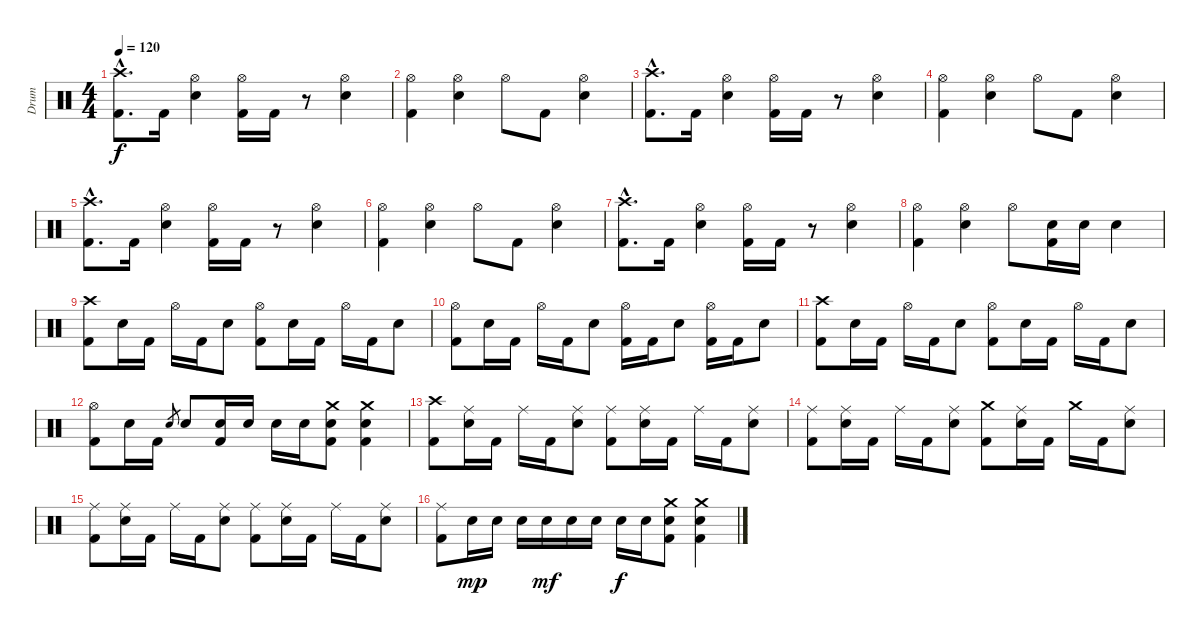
\track ("Drum" "Drum") {instrument percussion}
\staff {score}
\articulation defaults
\ts (4 4)
\tempo 120
\clef neutral
\ks c
("Crash high (hit)"{hac} "Kick (hit) 2"{hac}).8{d dy f} "Kick (hit) 2".16 ("Hi-Hat (open)" "Electric Snare (hit)").4 ("Hi-Hat (open)" "Kick (hit) 2").16 "Kick (hit) 2".16 r.8 ("Hi-Hat (open)" "Electric Snare (hit)").4 |
("Hi-Hat (open)" "Kick (hit) 2").4 ("Hi-Hat (open)" "Electric Snare (hit)").4 "Hi-Hat (open)".8 "Kick (hit) 2".8 ("Hi-Hat (open)" "Electric Snare (hit)").4 |
("Crash high (hit)"{hac} "Kick (hit) 2"{hac}).8{d} "Kick (hit) 2".16 ("Hi-Hat (open)" "Electric Snare (hit)").4 ("Hi-Hat (open)" "Kick (hit) 2").16 "Kick (hit) 2".16 r.8 ("Hi-Hat (open)" "Electric Snare (hit)").4 |
("Hi-Hat (open)" "Kick (hit) 2").4 ("Hi-Hat (open)" "Electric Snare (hit)").4 "Hi-Hat (open)".8 "Kick (hit) 2".8 ("Hi-Hat (open)" "Electric Snare (hit)").4 |
("Crash high (hit)"{hac} "Kick (hit) 2"{hac}).8{d} "Kick (hit) 2".16 ("Hi-Hat (open)" "Electric Snare (hit)").4 ("Hi-Hat (open)" "Kick (hit) 2").16 "Kick (hit) 2".16 r.8 ("Hi-Hat (open)" "Electric Snare (hit)").4 |
("Hi-Hat (open)" "Kick (hit) 2").4 ("Hi-Hat (open)" "Electric Snare (hit)").4 "Hi-Hat (open)".8 "Kick (hit) 2".8 ("Hi-Hat (open)" "Electric Snare (hit)").4 |
("Crash high (hit)"{hac} "Kick (hit) 2"{hac}).8{d} "Kick (hit) 2".16 ("Hi-Hat (open)" "Electric Snare (hit)").4 ("Hi-Hat (open)" "Kick (hit) 2").16 "Kick (hit) 2".16 r.8 ("Hi-Hat (open)" "Electric Snare (hit)").4 |
("Hi-Hat (open)" "Kick (hit) 2").4 ("Hi-Hat (open)" "Electric Snare (hit)").4 "Hi-Hat (open)".8 ("Electric Snare (hit)" "Kick (hit) 2").16 "Electric Snare (hit)".16 "Electric Snare (hit)".4 |
("Crash high (hit)" "Kick (hit) 2").8 "Electric Snare (hit)".16 "Kick (hit) 2".16 "Hi-Hat (open)".16 "Kick (hit) 2".16 "Electric Snare (hit)".8 ("Hi-Hat (open)" "Kick (hit) 2").8 "Electric Snare (hit)".16 "Kick (hit) 2".16 "Hi-Hat (open)".16 "Kick (hit) 2".16 "Electric Snare (hit)".8 |
("Hi-Hat (open)" "Kick (hit) 2").8 "Electric Snare (hit)".16 "Kick (hit) 2".16 "Hi-Hat (open)".16 "Kick (hit) 2".16 "Electric Snare (hit)".8 ("Hi-Hat (open)" "Kick (hit) 2").16 "Kick (hit) 2".16 "Electric Snare (hit)".8 ("Hi-Hat (open)" "Kick (hit) 2").16 "Kick (hit) 2".16 "Electric Snare (hit)".8 |
("Crash high (hit)" "Kick (hit) 2").8 "Electric Snare (hit)".16 "Kick (hit) 2".16 "Hi-Hat (open)".16 "Kick (hit) 2".16 "Electric Snare (hit)".8 ("Hi-Hat (open)" "Kick (hit) 2").8 "Electric Snare (hit)".16 "Kick (hit) 2".16 "Hi-Hat (open)".16 "Kick (hit) 2".16 "Electric Snare (hit)".8 |
("Hi-Hat (open)" "Kick (hit) 2").8 "Electric Snare (hit)".16 "Kick (hit) 2".16 "Electric Snare (hit)".8{gr} "Electric Snare (hit)".8 ("Electric Snare (hit)" "Kick (hit) 2").16 "Electric Snare (hit)".16 "Electric Snare (hit)".16 "Electric Snare (hit)".16 ("Crash medium (hit)" "Electric Snare (hit)" "Kick (hit) 2").8 ("Crash medium (hit)" "Electric Snare (hit)" "Kick (hit) 2").4 |
("Crash high (hit)" "Kick (hit) 2").8 ("Ride (middle)" "Electric Snare (hit)").16 "Kick (hit) 2".16 "Ride (middle)".16 "Kick (hit) 2".16 ("Ride (middle)" "Electric Snare (hit)").8 ("Ride (middle)" "Kick (hit) 2").8 ("Ride (middle)" "Electric Snare (hit)").16 "Kick (hit) 2".16 "Ride (middle)".16 "Kick (hit) 2".16 ("Ride (middle)" "Electric Snare (hit)").8 |
("Ride (middle)" "Kick (hit) 2").8 ("Ride (middle)" "Electric Snare (hit)").16 "Kick (hit) 2".16 "Ride (middle)".16 "Kick (hit) 2".16 ("Ride (middle)" "Electric Snare (hit)").8 ("Crash medium (hit)" "Kick (hit) 2").8 ("Ride (middle)" "Electric Snare (hit)").16 "Kick (hit) 2".16 "Crash medium (hit)".16 "Kick (hit) 2".16 ("Ride (middle)" "Electric Snare (hit)").8 |
("Ride (middle)" "Kick (hit) 2").8 ("Ride (middle)" "Electric Snare (hit)").16 "Kick (hit) 2".16 "Ride (middle)".16 "Kick (hit) 2".16 ("Ride (middle)" "Electric Snare (hit)").8 ("Ride (middle)" "Kick (hit) 2").8 ("Ride (middle)" "Electric Snare (hit)").16 "Kick (hit) 2".16 "Ride (middle)".16 "Kick (hit) 2".16 ("Ride (middle)" "Electric Snare (hit)").8 |
("Ride (middle)" "Kick (hit) 2").8 "Electric Snare (hit)".16{dy mp} "Electric Snare (hit)".16 "Electric Snare (hit)".16 "Electric Snare (hit)".16{dy mf} "Electric Snare (hit)".16 "Electric Snare (hit)".16 "Electric Snare (hit)".16{dy f} "Electric Snare (hit)".16 ("Crash medium (hit)" "Electric Snare (hit)" "Kick (hit) 2").8 ("Crash medium (hit)" "Electric Snare (hit)" "Kick (hit) 2").4
